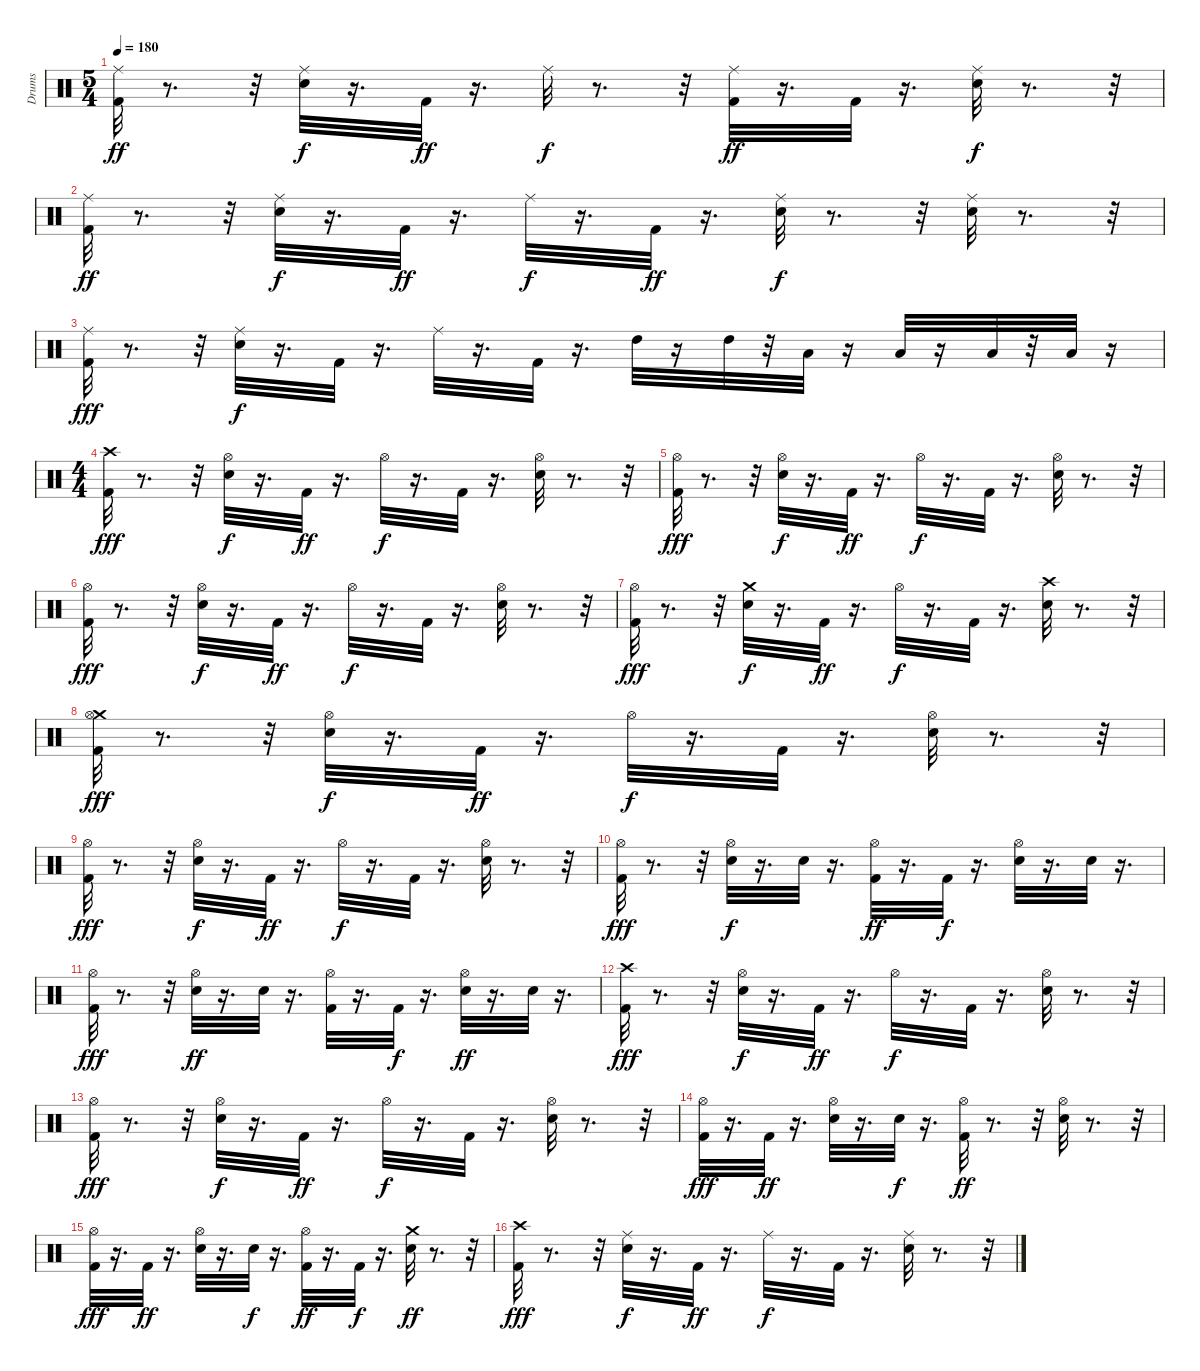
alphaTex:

\track ("Drums" "Drums") {instrument percussion}
\staff {score}
\articulation defaults
\ts (5 4)
\tempo 180
\clef neutral
\ks c
("Ride (middle)" "Kick (hit) 2").32{dy ff} r.8{d} r.32 ("Ride (middle)" "Snare (hit) 2").32{dy f} r.16{d} "Kick (hit) 2".32{dy ff} r.16{d} "Ride (middle)".32{dy f} r.8{d} r.32 ("Kick (hit) 2" "Ride (middle)").32{dy ff} r.16{d} "Kick (hit) 2".32 r.16{d} ("Ride (middle)" "Snare (hit) 2").32{dy f} r.8{d} r.32 |
("Ride (middle)" "Kick (hit) 2").32{dy ff} r.8{d} r.32 ("Ride (middle)" "Snare (hit) 2").32{dy f} r.16{d} "Kick (hit) 2".32{dy ff} r.16{d} "Ride (middle)".32{dy f} r.16{d} "Kick (hit) 2".32{dy ff} r.16{d} ("Ride (middle)" "Snare (hit) 2").32{dy f} r.8{d} r.32 ("Ride (middle)" "Snare (hit) 2").32 r.8{d} r.32 |
("Ride (middle)" "Kick (hit) 2").32{dy fff} r.8{d} r.32 ("Ride (middle)" "Snare (hit) 2").32{dy f} r.16{d} "Kick (hit) 2".32 r.16{d} "Ride (middle)".32 r.16{d} "Kick (hit) 2".32 r.16{d} "High Tom (hit)".32 r.16 "High Tom (hit)".32 r.32 "Low Tom (hit)".32 r.16 "Low Tom (hit)".32 r.16 "Low Floor Tom (hit)".32 r.32 "Low Floor Tom (hit)".32 r.16 |
\ts (4 4)
("Kick (hit) 2" "Crash high (hit)").32{dy fff} r.8{d} r.32 ("Hi-Hat (open)" "Snare (hit) 2").32{dy f} r.16{d} "Kick (hit) 2".32{dy ff} r.16{d} "Hi-Hat (open)".32{dy f} r.16{d} "Kick (hit) 2".32 r.16{d} ("Hi-Hat (open)" "Snare (hit) 2").32 r.8{d} r.32 |
("Hi-Hat (open)" "Kick (hit) 2").32{dy fff} r.8{d} r.32 ("Hi-Hat (open)" "Snare (hit) 2").32{dy f} r.16{d} "Kick (hit) 2".32{dy ff} r.16{d} "Hi-Hat (open)".32{dy f} r.16{d} "Kick (hit) 2".32 r.16{d} ("Hi-Hat (open)" "Snare (hit) 2").32 r.8{d} r.32 |
("Hi-Hat (open)" "Kick (hit) 2").32{dy fff} r.8{d} r.32 ("Hi-Hat (open)" "Snare (hit) 2").32{dy f} r.16{d} "Kick (hit) 2".32{dy ff} r.16{d} "Hi-Hat (open)".32{dy f} r.16{d} "Kick (hit) 2".32 r.16{d} ("Hi-Hat (open)" "Snare (hit) 2").32 r.8{d} r.32 |
("Hi-Hat (open)" "Kick (hit) 2").32{dy fff} r.8{d} r.32 ("Crash medium (hit)" "Snare (hit) 2").32{dy f} r.16{d} "Kick (hit) 2".32{dy ff} r.16{d} "Hi-Hat (open)".32{dy f} r.16{d} "Kick (hit) 2".32 r.16{d} ("Crash high (hit)" "Snare (hit) 2").32 r.8{d} r.32 |
("Crash medium (hit)" "Hi-Hat (open)" "Kick (hit) 2").32{dy fff} r.8{d} r.32 ("Hi-Hat (open)" "Snare (hit) 2").32{dy f} r.16{d} "Kick (hit) 2".32{dy ff} r.16{d} "Hi-Hat (open)".32{dy f} r.16{d} "Kick (hit) 2".32 r.16{d} ("Hi-Hat (open)" "Snare (hit) 2").32 r.8{d} r.32 |
("Hi-Hat (open)" "Kick (hit) 2").32{dy fff} r.8{d} r.32 ("Hi-Hat (open)" "Snare (hit) 2").32{dy f} r.16{d} "Kick (hit) 2".32{dy ff} r.16{d} "Hi-Hat (open)".32{dy f} r.16{d} "Kick (hit) 2".32 r.16{d} ("Hi-Hat (open)" "Snare (hit) 2").32 r.8{d} r.32 |
("Hi-Hat (open)" "Kick (hit) 2").32{dy fff} r.8{d} r.32 ("Hi-Hat (open)" "Snare (hit) 2").32{dy f} r.16{d} "Snare (hit) 2".32 r.16{d} ("Kick (hit) 2" "Hi-Hat (open)").32{dy ff} r.16{d} "Kick (hit) 2".32{dy f} r.16{d} ("Hi-Hat (open)" "Snare (hit) 2").32 r.16{d} "Snare (hit) 2".32 r.16{d} |
("Hi-Hat (open)" "Kick (hit) 2").32{dy fff} r.8{d} r.32 ("Hi-Hat (open)" "Snare (hit) 2").32{dy ff} r.16{d} "Snare (hit) 2".32 r.16{d} ("Kick (hit) 2" "Hi-Hat (open)").32 r.16{d} "Kick (hit) 2".32{dy f} r.16{d} ("Hi-Hat (open)" "Snare (hit) 2").32{dy ff} r.16{d} "Snare (hit) 2".32 r.16{d} |
("Kick (hit) 2" "Crash high (hit)").32{dy fff} r.8{d} r.32 ("Hi-Hat (open)" "Snare (hit) 2").32{dy f} r.16{d} "Kick (hit) 2".32{dy ff} r.16{d} "Hi-Hat (open)".32{dy f} r.16{d} "Kick (hit) 2".32 r.16{d} ("Hi-Hat (open)" "Snare (hit) 2").32 r.8{d} r.32 |
("Hi-Hat (open)" "Kick (hit) 2").32{dy fff} r.8{d} r.32 ("Hi-Hat (open)" "Snare (hit) 2").32{dy f} r.16{d} "Kick (hit) 2".32{dy ff} r.16{d} "Hi-Hat (open)".32{dy f} r.16{d} "Kick (hit) 2".32 r.16{d} ("Hi-Hat (open)" "Snare (hit) 2").32 r.8{d} r.32 |
("Hi-Hat (open)" "Kick (hit) 2").32{dy fff} r.16{d} "Kick (hit) 2".32{dy ff} r.16{d} ("Hi-Hat (open)" "Snare (hit) 2").32 r.16{d} "Snare (hit) 2".32{dy f} r.16{d} ("Kick (hit) 2" "Hi-Hat (open)").32{dy ff} r.8{d} r.32 ("Hi-Hat (open)" "Snare (hit) 2").32 r.8{d} r.32 |
("Hi-Hat (open)" "Kick (hit) 2").32{dy fff} r.16{d} "Kick (hit) 2".32{dy ff} r.16{d} ("Hi-Hat (open)" "Snare (hit) 2").32 r.16{d} "Snare (hit) 2".32{dy f} r.16{d} ("Kick (hit) 2" "Hi-Hat (open)").32{dy ff} r.16{d} "Kick (hit) 2".32{dy f} r.16{d} ("Crash medium (hit)" "Snare (hit) 2").32{dy ff} r.8{d} r.32 |
("Kick (hit) 2" "Crash high (hit)").32{dy fff} r.8{d} r.32 ("Ride (middle)" "Snare (hit) 2").32{dy f} r.16{d} "Kick (hit) 2".32{dy ff} r.16{d} "Ride (middle)".32{dy f} r.16{d} "Kick (hit) 2".32 r.16{d} ("Ride (middle)" "Snare (hit) 2").32 r.8{d} r.32
